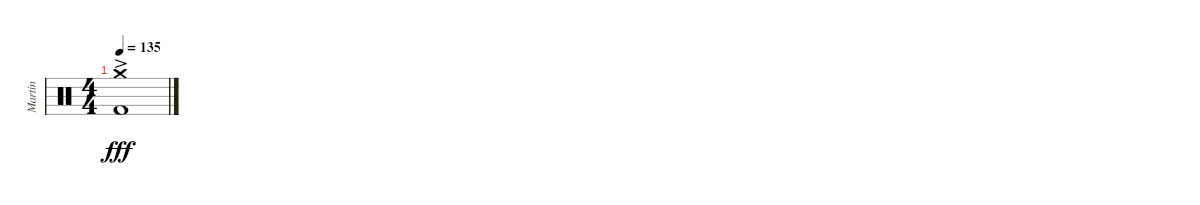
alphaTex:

\track ("Martin" "Martin") {instrument percussion}
\staff {score}
\articulation defaults
\ts (4 4)
\tempo 135
\clef neutral
\ks c
("Crash medium (hit)" "Kick (hit) 2"{ac}).1{dy fff}
